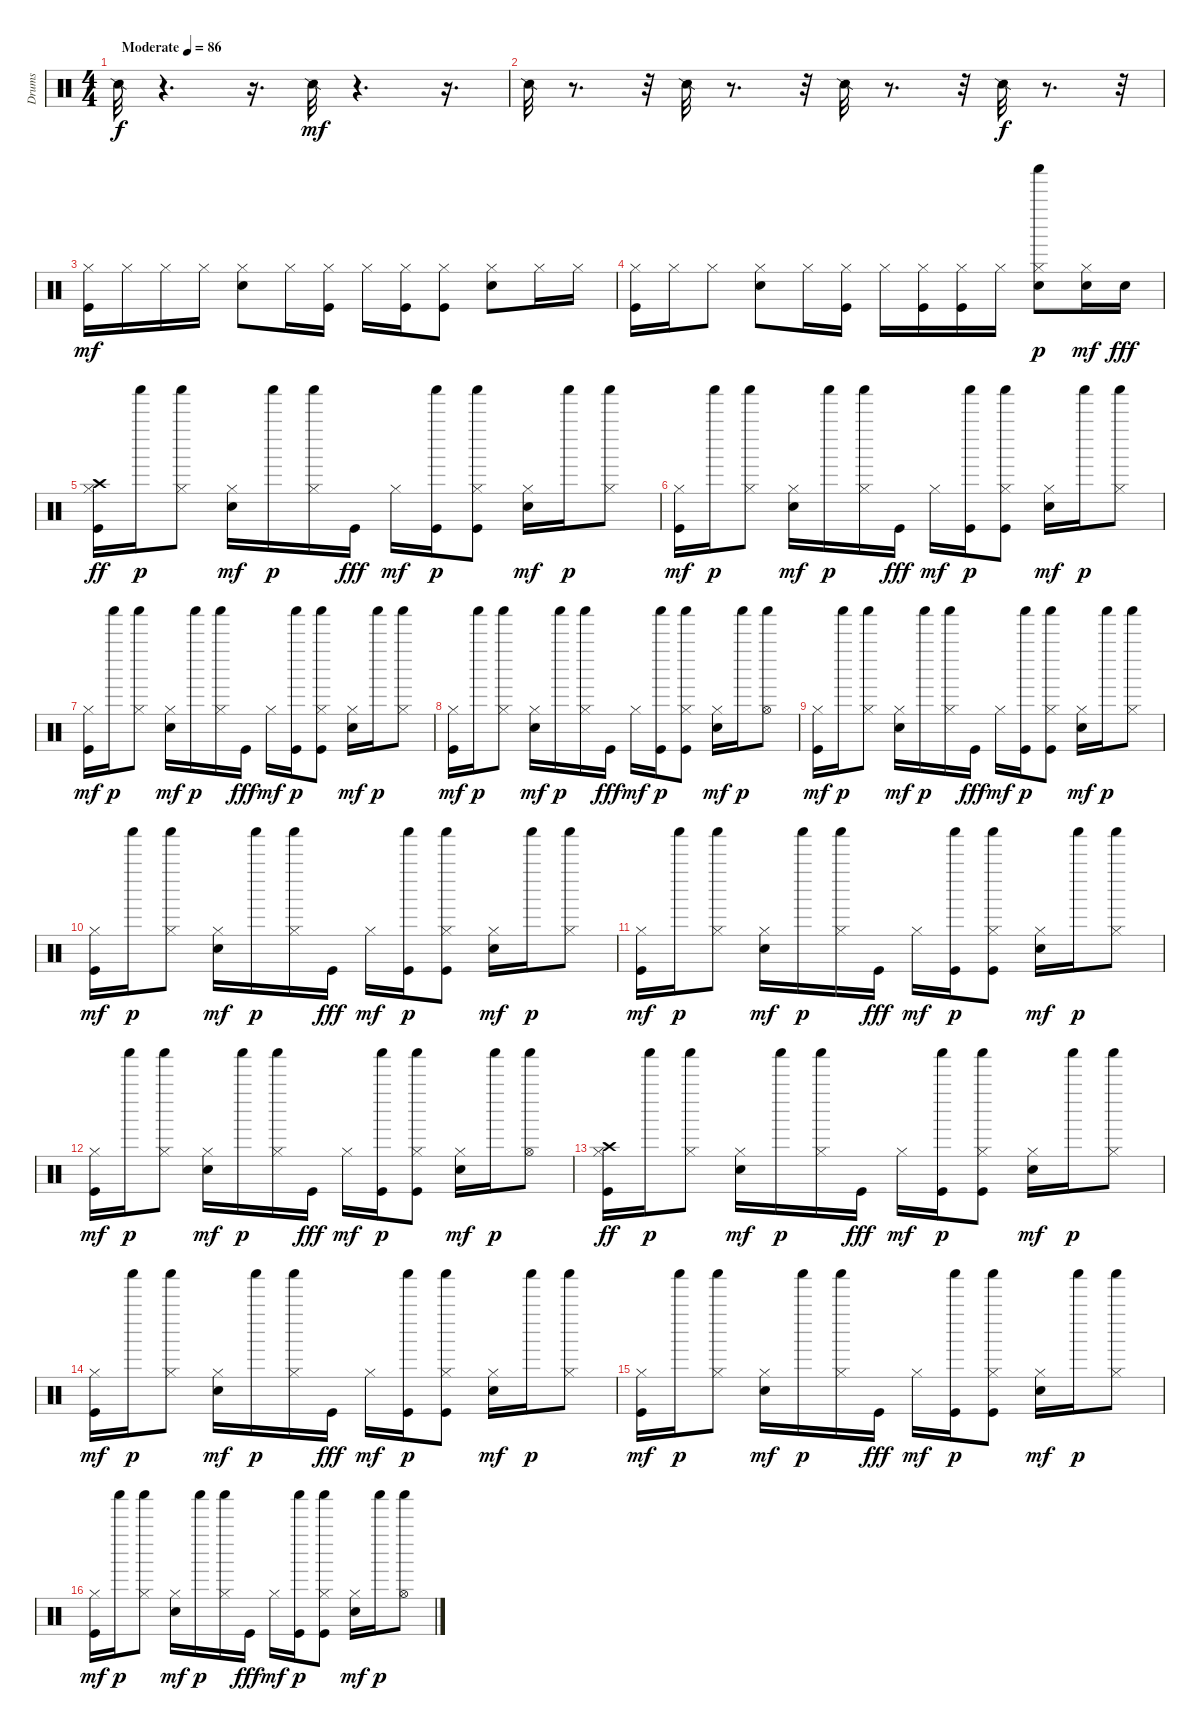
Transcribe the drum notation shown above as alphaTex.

\track ("Drums               " "Drums     ") {instrument percussion}
\staff {score}
\articulation defaults
\ts (4 4)
\tempo (86 "Moderate")
\clef neutral
\ks c "Snare (side stick) 2".32{dy f}
r.4{d} r.16{d} "Snare (side stick) 2".32{dy mf} r.4{d} r.16{d} |
"Snare (side stick) 2".32 r.8{d} r.32 "Snare (side stick) 2".32 r.8{d} r.32 "Snare (side stick) 2".32 r.8{d} r.32 "Snare (side stick) 2".32{dy f} r.8{d} r.32 |
("Kick (hit)" "Hi-Hat (closed)").16{dy mf volume 12} "Hi-Hat (closed)".16 "Hi-Hat (closed)".16 "Hi-Hat (closed)".16 ("Snare (hit) 2" "Hi-Hat (closed)").8 "Hi-Hat (closed)".16 ("Kick (hit)" "Hi-Hat (closed)").16 "Hi-Hat (closed)".16 ("Kick (hit)" "Hi-Hat (closed)").16 ("Kick (hit)" "Hi-Hat (closed)").8 ("Snare (hit) 2" "Hi-Hat (closed)").8 "Hi-Hat (closed)".16 "Hi-Hat (closed)".16 |
("Kick (hit)" "Hi-Hat (closed)").16 "Hi-Hat (closed)".16 "Hi-Hat (closed)".8 ("Snare (hit) 2" "Hi-Hat (closed)").8 "Hi-Hat (closed)".16 ("Kick (hit)" "Hi-Hat (closed)").16 "Hi-Hat (closed)".16 ("Kick (hit)" "Hi-Hat (closed)").16 ("Kick (hit)" "Hi-Hat (closed)").16 "Hi-Hat (closed)".16 ("Snare (hit) 2" "Hi-Hat (closed)" "Shaker (hit)").8{dy p} ("Snare (hit) 2" "Hi-Hat (closed)").16{dy mf} "Snare (hit) 2".16{dy fff} |
("Kick (hit)" "Hi-Hat (closed)" "Crash high (hit)").16{dy ff} "Shaker (hit)".16{dy p} ("Hi-Hat (closed)" "Shaker (hit)").8 ("Snare (hit) 2" "Hi-Hat (closed)").16{dy mf} "Shaker (hit)".16{dy p} ("Hi-Hat (closed)" "Shaker (hit)").16 "Kick (hit)".16{dy fff} "Hi-Hat (closed)".16{dy mf} ("Kick (hit)" "Shaker (hit)").16{dy p} ("Kick (hit)" "Hi-Hat (closed)" "Shaker (hit)").8 ("Snare (hit) 2" "Hi-Hat (closed)").16{dy mf} "Shaker (hit)".16{dy p} ("Hi-Hat (closed)" "Shaker (hit)").8 |
("Kick (hit)" "Hi-Hat (closed)").16{dy mf} "Shaker (hit)".16{dy p} ("Hi-Hat (closed)" "Shaker (hit)").8 ("Snare (hit) 2" "Hi-Hat (closed)").16{dy mf} "Shaker (hit)".16{dy p} ("Hi-Hat (closed)" "Shaker (hit)").16 "Kick (hit)".16{dy fff} "Hi-Hat (closed)".16{dy mf} ("Kick (hit)" "Shaker (hit)").16{dy p} ("Kick (hit)" "Hi-Hat (closed)" "Shaker (hit)").8 ("Snare (hit) 2" "Hi-Hat (closed)").16{dy mf} "Shaker (hit)".16{dy p} ("Hi-Hat (closed)" "Shaker (hit)").8 |
("Kick (hit)" "Hi-Hat (closed)").16{dy mf} "Shaker (hit)".16{dy p} ("Hi-Hat (closed)" "Shaker (hit)").8 ("Snare (hit) 2" "Hi-Hat (closed)").16{dy mf} "Shaker (hit)".16{dy p} ("Hi-Hat (closed)" "Shaker (hit)").16 "Kick (hit)".16{dy fff} "Hi-Hat (closed)".16{dy mf} ("Kick (hit)" "Shaker (hit)").16{dy p} ("Kick (hit)" "Hi-Hat (closed)" "Shaker (hit)").8 ("Snare (hit) 2" "Hi-Hat (closed)").16{dy mf} "Shaker (hit)".16{dy p} ("Hi-Hat (closed)" "Shaker (hit)").8 |
("Kick (hit)" "Hi-Hat (closed)").16{dy mf} "Shaker (hit)".16{dy p} ("Hi-Hat (closed)" "Shaker (hit)").8 ("Snare (hit) 2" "Hi-Hat (closed)").16{dy mf} "Shaker (hit)".16{dy p} ("Hi-Hat (closed)" "Shaker (hit)").16 "Kick (hit)".16{dy fff} "Hi-Hat (closed)".16{dy mf} ("Kick (hit)" "Shaker (hit)").16{dy p} ("Kick (hit)" "Hi-Hat (closed)" "Shaker (hit)").8 ("Snare (hit) 2" "Hi-Hat (closed)").16{dy mf} "Shaker (hit)".16{dy p} ("Hi-Hat (open)" "Shaker (hit)").8 |
("Kick (hit)" "Hi-Hat (closed)").16{dy mf} "Shaker (hit)".16{dy p} ("Hi-Hat (closed)" "Shaker (hit)").8 ("Snare (hit) 2" "Hi-Hat (closed)").16{dy mf} "Shaker (hit)".16{dy p} ("Hi-Hat (closed)" "Shaker (hit)").16 "Kick (hit)".16{dy fff} "Hi-Hat (closed)".16{dy mf} ("Kick (hit)" "Shaker (hit)").16{dy p} ("Kick (hit)" "Hi-Hat (closed)" "Shaker (hit)").8 ("Snare (hit) 2" "Hi-Hat (closed)").16{dy mf} "Shaker (hit)".16{dy p} ("Hi-Hat (closed)" "Shaker (hit)").8 |
("Kick (hit)" "Hi-Hat (closed)").16{dy mf} "Shaker (hit)".16{dy p} ("Hi-Hat (closed)" "Shaker (hit)").8 ("Snare (hit) 2" "Hi-Hat (closed)").16{dy mf} "Shaker (hit)".16{dy p} ("Hi-Hat (closed)" "Shaker (hit)").16 "Kick (hit)".16{dy fff} "Hi-Hat (closed)".16{dy mf} ("Kick (hit)" "Shaker (hit)").16{dy p} ("Kick (hit)" "Hi-Hat (closed)" "Shaker (hit)").8 ("Snare (hit) 2" "Hi-Hat (closed)").16{dy mf} "Shaker (hit)".16{dy p} ("Hi-Hat (closed)" "Shaker (hit)").8 |
("Kick (hit)" "Hi-Hat (closed)").16{dy mf} "Shaker (hit)".16{dy p} ("Hi-Hat (closed)" "Shaker (hit)").8 ("Snare (hit) 2" "Hi-Hat (closed)").16{dy mf} "Shaker (hit)".16{dy p} ("Hi-Hat (closed)" "Shaker (hit)").16 "Kick (hit)".16{dy fff} "Hi-Hat (closed)".16{dy mf} ("Kick (hit)" "Shaker (hit)").16{dy p} ("Kick (hit)" "Hi-Hat (closed)" "Shaker (hit)").8 ("Snare (hit) 2" "Hi-Hat (closed)").16{dy mf} "Shaker (hit)".16{dy p} ("Hi-Hat (closed)" "Shaker (hit)").8 |
("Kick (hit)" "Hi-Hat (closed)").16{dy mf} "Shaker (hit)".16{dy p} ("Hi-Hat (closed)" "Shaker (hit)").8 ("Snare (hit) 2" "Hi-Hat (closed)").16{dy mf} "Shaker (hit)".16{dy p} ("Hi-Hat (closed)" "Shaker (hit)").16 "Kick (hit)".16{dy fff} "Hi-Hat (closed)".16{dy mf} ("Kick (hit)" "Shaker (hit)").16{dy p} ("Kick (hit)" "Hi-Hat (closed)" "Shaker (hit)").8 ("Snare (hit) 2" "Hi-Hat (closed)").16{dy mf} "Shaker (hit)".16{dy p} ("Hi-Hat (open)" "Shaker (hit)").8 |
("Kick (hit)" "Hi-Hat (closed)" "Crash high (hit)").16{dy ff} "Shaker (hit)".16{dy p} ("Hi-Hat (closed)" "Shaker (hit)").8 ("Snare (hit) 2" "Hi-Hat (closed)").16{dy mf} "Shaker (hit)".16{dy p} ("Hi-Hat (closed)" "Shaker (hit)").16 "Kick (hit)".16{dy fff} "Hi-Hat (closed)".16{dy mf} ("Kick (hit)" "Shaker (hit)").16{dy p} ("Kick (hit)" "Hi-Hat (closed)" "Shaker (hit)").8 ("Snare (hit) 2" "Hi-Hat (closed)").16{dy mf} "Shaker (hit)".16{dy p} ("Hi-Hat (closed)" "Shaker (hit)").8 |
("Kick (hit)" "Hi-Hat (closed)").16{dy mf} "Shaker (hit)".16{dy p} ("Hi-Hat (closed)" "Shaker (hit)").8 ("Snare (hit) 2" "Hi-Hat (closed)").16{dy mf} "Shaker (hit)".16{dy p} ("Hi-Hat (closed)" "Shaker (hit)").16 "Kick (hit)".16{dy fff} "Hi-Hat (closed)".16{dy mf} ("Kick (hit)" "Shaker (hit)").16{dy p} ("Kick (hit)" "Hi-Hat (closed)" "Shaker (hit)").8 ("Snare (hit) 2" "Hi-Hat (closed)").16{dy mf} "Shaker (hit)".16{dy p} ("Hi-Hat (closed)" "Shaker (hit)").8 |
("Kick (hit)" "Hi-Hat (closed)").16{dy mf} "Shaker (hit)".16{dy p} ("Hi-Hat (closed)" "Shaker (hit)").8 ("Snare (hit) 2" "Hi-Hat (closed)").16{dy mf} "Shaker (hit)".16{dy p} ("Hi-Hat (closed)" "Shaker (hit)").16 "Kick (hit)".16{dy fff} "Hi-Hat (closed)".16{dy mf} ("Kick (hit)" "Shaker (hit)").16{dy p} ("Kick (hit)" "Hi-Hat (closed)" "Shaker (hit)").8 ("Snare (hit) 2" "Hi-Hat (closed)").16{dy mf} "Shaker (hit)".16{dy p} ("Hi-Hat (closed)" "Shaker (hit)").8 |
("Kick (hit)" "Hi-Hat (closed)").16{dy mf} "Shaker (hit)".16{dy p} ("Hi-Hat (closed)" "Shaker (hit)").8 ("Snare (hit) 2" "Hi-Hat (closed)").16{dy mf} "Shaker (hit)".16{dy p} ("Hi-Hat (closed)" "Shaker (hit)").16 "Kick (hit)".16{dy fff} "Hi-Hat (closed)".16{dy mf} ("Kick (hit)" "Shaker (hit)").16{dy p} ("Kick (hit)" "Hi-Hat (closed)" "Shaker (hit)").8 ("Snare (hit) 2" "Hi-Hat (closed)").16{dy mf} "Shaker (hit)".16{dy p} ("Hi-Hat (open)" "Shaker (hit)").8
